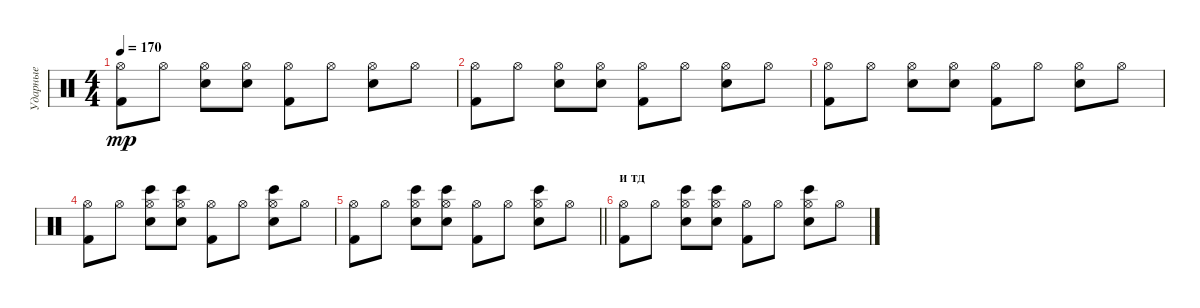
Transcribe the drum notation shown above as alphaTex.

\track ("Ударные" "Ударные") {instrument percussion}
\staff {score}
\articulation defaults
\ts (4 4)
\tempo 170
\clef neutral
\ks c
("Hi-Hat (open)" "Kick (hit) 2").8{dy mp} "Hi-Hat (open)".8 ("Hi-Hat (open)" "Electric Snare (hit)").8 ("Hi-Hat (open)" "Electric Snare (hit)").8 ("Hi-Hat (open)" "Kick (hit) 2").8 "Hi-Hat (open)".8 ("Hi-Hat (open)" "Electric Snare (hit)").8 "Hi-Hat (open)".8 |
("Hi-Hat (open)" "Kick (hit) 2").8 "Hi-Hat (open)".8 ("Hi-Hat (open)" "Electric Snare (hit)").8 ("Hi-Hat (open)" "Electric Snare (hit)").8 ("Hi-Hat (open)" "Kick (hit) 2").8 "Hi-Hat (open)".8 ("Hi-Hat (open)" "Electric Snare (hit)").8 "Hi-Hat (open)".8 |
("Hi-Hat (open)" "Kick (hit) 2").8 "Hi-Hat (open)".8 ("Hi-Hat (open)" "Electric Snare (hit)").8 ("Hi-Hat (open)" "Electric Snare (hit)").8 ("Hi-Hat (open)" "Kick (hit) 2").8 "Hi-Hat (open)".8 ("Hi-Hat (open)" "Electric Snare (hit)").8 "Hi-Hat (open)".8 |
("Hi-Hat (open)" "Kick (hit) 2").8 "Hi-Hat (open)".8 ("Bongo High (hit)" "Hi-Hat (open)" "Electric Snare (hit)").8 ("Bongo High (hit)" "Hi-Hat (open)" "Electric Snare (hit)").8 ("Hi-Hat (open)" "Kick (hit) 2").8 "Hi-Hat (open)".8 ("Bongo High (hit)" "Hi-Hat (open)" "Electric Snare (hit)").8 "Hi-Hat (open)".8 |
\barLineRight lightlight
("Hi-Hat (open)" "Kick (hit) 2").8 "Hi-Hat (open)".8 ("Bongo High (hit)" "Hi-Hat (open)" "Electric Snare (hit)").8 ("Bongo High (hit)" "Hi-Hat (open)" "Electric Snare (hit)").8 ("Hi-Hat (open)" "Kick (hit) 2").8 "Hi-Hat (open)".8 ("Bongo High (hit)" "Hi-Hat (open)" "Electric Snare (hit)").8 "Hi-Hat (open)".8 |
\section ("" "и тд")
("Hi-Hat (open)" "Kick (hit) 2").8 "Hi-Hat (open)".8 ("Bongo High (hit)" "Hi-Hat (open)" "Electric Snare (hit)").8 ("Bongo High (hit)" "Hi-Hat (open)" "Electric Snare (hit)").8 ("Hi-Hat (open)" "Kick (hit) 2").8 "Hi-Hat (open)".8 ("Bongo High (hit)" "Hi-Hat (open)" "Electric Snare (hit)").8 "Hi-Hat (open)".8
